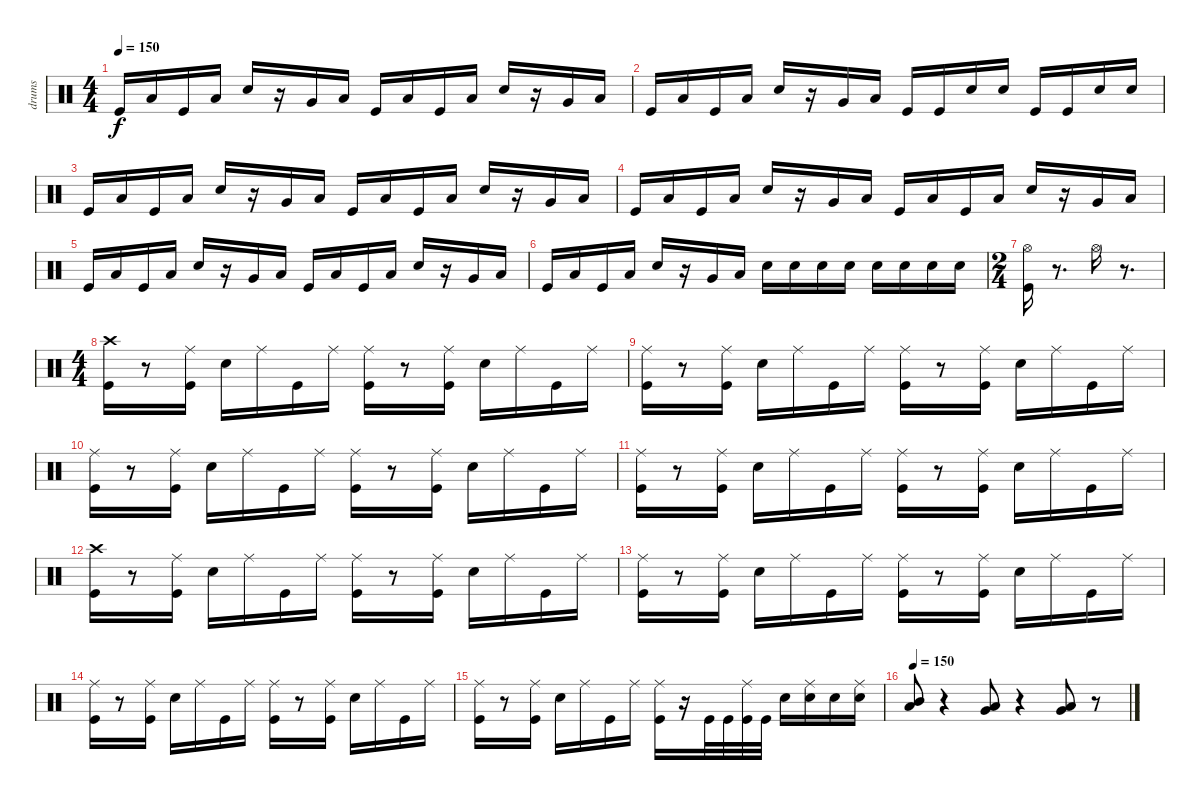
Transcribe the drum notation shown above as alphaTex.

\track ("drums" "drums") {instrument percussion}
\staff {score}
\articulation defaults
\ts (4 4)
\tempo 150
\clef neutral
\ks c "Kick (hit)".16{dy f} "Low Tom (hit)".16 "Kick (hit)".16 "Low Floor Tom (hit)".16 "Electric Snare (hit)".16
r.16 "Very Low Tom (hit)".16 "Low Floor Tom (hit)".16 "Kick (hit)".16 "Low Tom (hit)".16 "Kick (hit)".16 "Low Floor Tom (hit)".16 "Electric Snare (hit)".16 r.16 "Very Low Tom (hit)".16 "Low Floor Tom (hit)".16 |
"Kick (hit)".16 "Low Tom (hit)".16 "Kick (hit)".16 "Low Floor Tom (hit)".16 "Electric Snare (hit)".16 r.16 "Very Low Tom (hit)".16 "Low Floor Tom (hit)".16 "Kick (hit)".16 "Kick (hit)".16 "Electric Snare (hit)".16 "Electric Snare (hit)".16 "Kick (hit)".16 "Kick (hit)".16 "Electric Snare (hit)".16 "Electric Snare (hit)".16 |
"Kick (hit)".16 "Low Tom (hit)".16 "Kick (hit)".16 "Low Floor Tom (hit)".16 "Electric Snare (hit)".16 r.16 "Very Low Tom (hit)".16 "Low Floor Tom (hit)".16 "Kick (hit)".16 "Low Tom (hit)".16 "Kick (hit)".16 "Low Floor Tom (hit)".16 "Electric Snare (hit)".16 r.16 "Very Low Tom (hit)".16 "Low Floor Tom (hit)".16 |
"Kick (hit)".16 "Low Tom (hit)".16 "Kick (hit)".16 "Low Floor Tom (hit)".16 "Electric Snare (hit)".16 r.16 "Very Low Tom (hit)".16 "Low Floor Tom (hit)".16 "Kick (hit)".16 "Low Tom (hit)".16 "Kick (hit)".16 "Low Floor Tom (hit)".16 "Electric Snare (hit)".16 r.16 "Very Low Tom (hit)".16 "Low Floor Tom (hit)".16 |
"Kick (hit)".16 "Low Tom (hit)".16 "Kick (hit)".16 "Low Floor Tom (hit)".16 "Electric Snare (hit)".16 r.16 "Very Low Tom (hit)".16 "Low Floor Tom (hit)".16 "Kick (hit)".16 "Low Tom (hit)".16 "Kick (hit)".16 "Low Floor Tom (hit)".16 "Electric Snare (hit)".16 r.16 "Very Low Tom (hit)".16 "Low Floor Tom (hit)".16 |
"Kick (hit)".16 "Low Tom (hit)".16 "Kick (hit)".16 "Low Floor Tom (hit)".16 "Electric Snare (hit)".16 r.16 "Very Low Tom (hit)".16 "Low Floor Tom (hit)".16 "Electric Snare (hit)".16 "Electric Snare (hit)".16 "Electric Snare (hit)".16 "Electric Snare (hit)".16 "Electric Snare (hit)".16 "Electric Snare (hit)".16 "Electric Snare (hit)".16 "Electric Snare (hit)".16 |
\ts (2 4)
("Hi-Hat (open)" "Kick (hit)").16 r.8{d} "Hi-Hat (open)".16 r.8{d} |
\ts (4 4)
("Crash high (hit)" "Kick (hit)").16 r.8 ("Ride (middle)" "Kick (hit)").16 "Electric Snare (hit)".16 "Ride (middle)".16 "Kick (hit)".16 "Ride (middle)".16 ("Ride (middle)" "Kick (hit)").16 r.8 ("Ride (middle)" "Kick (hit)").16 "Electric Snare (hit)".16 "Ride (middle)".16 "Kick (hit)".16 "Ride (middle)".16 |
("Ride (middle)" "Kick (hit)").16 r.8 ("Ride (middle)" "Kick (hit)").16 "Electric Snare (hit)".16 "Ride (middle)".16 "Kick (hit)".16 "Ride (middle)".16 ("Ride (middle)" "Kick (hit)").16 r.8 ("Ride (middle)" "Kick (hit)").16 "Electric Snare (hit)".16 "Ride (middle)".16 "Kick (hit)".16 "Ride (middle)".16 |
("Ride (middle)" "Kick (hit)").16 r.8 ("Ride (middle)" "Kick (hit)").16 "Electric Snare (hit)".16 "Ride (middle)".16 "Kick (hit)".16 "Ride (middle)".16 ("Ride (middle)" "Kick (hit)").16 r.8 ("Ride (middle)" "Kick (hit)").16 "Electric Snare (hit)".16 "Ride (middle)".16 "Kick (hit)".16 "Ride (middle)".16 |
("Ride (middle)" "Kick (hit)").16 r.8 ("Ride (middle)" "Kick (hit)").16 "Electric Snare (hit)".16 "Ride (middle)".16 "Kick (hit)".16 "Ride (middle)".16 ("Ride (middle)" "Kick (hit)").16 r.8 ("Ride (middle)" "Kick (hit)").16 "Electric Snare (hit)".16 "Ride (middle)".16 "Kick (hit)".16 "Ride (middle)".16 |
("Crash high (hit)" "Kick (hit)").16 r.8 ("Ride (middle)" "Kick (hit)").16 "Electric Snare (hit)".16 "Ride (middle)".16 "Kick (hit)".16 "Ride (middle)".16 ("Ride (middle)" "Kick (hit)").16 r.8 ("Ride (middle)" "Kick (hit)").16 "Electric Snare (hit)".16 "Ride (middle)".16 "Kick (hit)".16 "Ride (middle)".16 |
("Ride (middle)" "Kick (hit)").16 r.8 ("Ride (middle)" "Kick (hit)").16 "Electric Snare (hit)".16 "Ride (middle)".16 "Kick (hit)".16 "Ride (middle)".16 ("Ride (middle)" "Kick (hit)").16 r.8 ("Ride (middle)" "Kick (hit)").16 "Electric Snare (hit)".16 "Ride (middle)".16 "Kick (hit)".16 "Ride (middle)".16 |
("Ride (middle)" "Kick (hit)").16 r.8 ("Ride (middle)" "Kick (hit)").16 "Electric Snare (hit)".16 "Ride (middle)".16 "Kick (hit)".16 "Ride (middle)".16 ("Ride (middle)" "Kick (hit)").16 r.8 ("Ride (middle)" "Kick (hit)").16 "Electric Snare (hit)".16 "Ride (middle)".16 "Kick (hit)".16 "Ride (middle)".16 |
("Ride (middle)" "Kick (hit)").16 r.8 ("Ride (middle)" "Kick (hit)").16 "Electric Snare (hit)".16 "Ride (middle)".16 "Kick (hit)".16 "Ride (middle)".16 ("Kick (hit)" "Ride (middle)").16 r.16 "Kick (hit)".32 "Kick (hit)".32 ("Kick (hit)" "Ride (middle)").32 "Kick (hit)".32 "Electric Snare (hit)".16 ("Electric Snare (hit)" "Ride (middle)").16 "Electric Snare (hit)".16 ("Electric Snare (hit)" "Ride (middle)").16 |
\tempo 150
("Low Tom (hit)" "Mid Tom (hit)").8 r.4 ("Low Tom (hit)" "Very Low Tom (hit)").8 r.4 ("Low Floor Tom (hit)" "Very Low Tom (hit)").8 r.8
